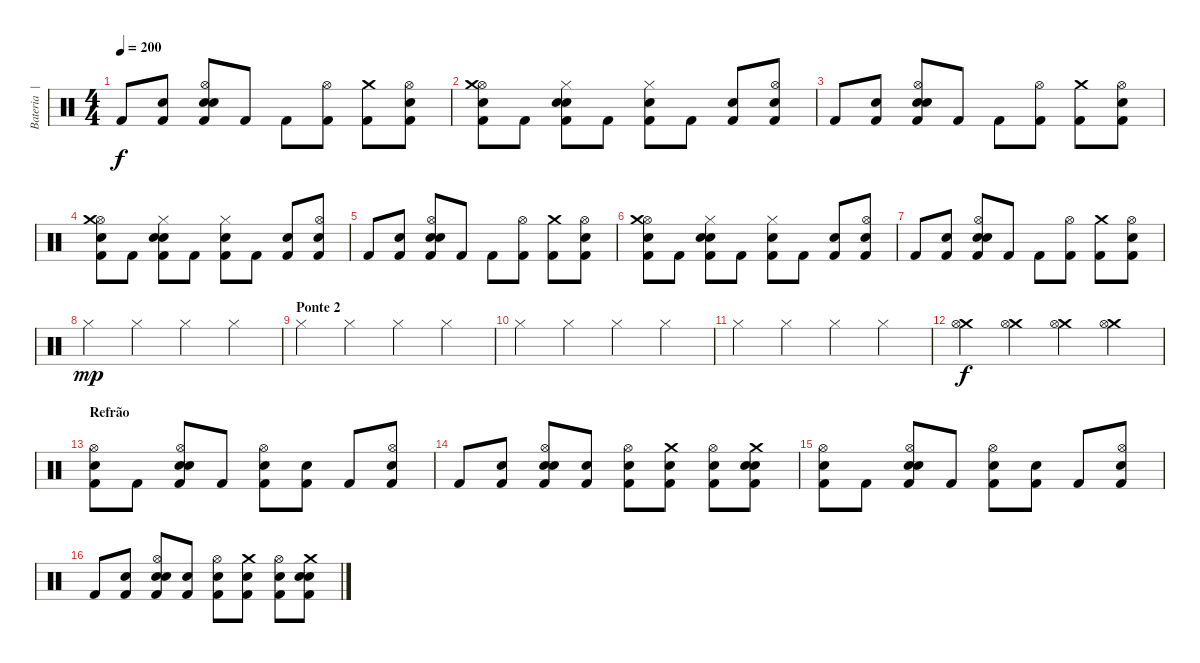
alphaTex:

\track ("Bateria  | Nô" "Bateria  |") {instrument percussion}
\staff {score}
\articulation defaults
\ts (4 4)
\tempo 200
\clef neutral
\ks c "Kick (hit) 2".8{dy f}
("Electric Snare (hit)" "Kick (hit) 2").8 ("Hi-Hat (open)" "Electric Snare (hit)" "Snare (hit) 2" "Kick (hit) 2").8 "Kick (hit) 2".8 "Kick (hit) 2".8 ("Hi-Hat (open)" "Kick (hit) 2").8 ("Crash medium (hit)" "Kick (hit) 2").8 ("Hi-Hat (open)" "Electric Snare (hit)" "Kick (hit) 2").8 |
("Hi-Hat (open)" "Crash medium (hit)" "Electric Snare (hit)" "Kick (hit) 2").8 "Kick (hit) 2".8 ("Hi-Hat (closed)" "Snare (hit) 2" "Electric Snare (hit)" "Kick (hit) 2").8 "Kick (hit) 2".8 ("Hi-Hat (closed)" "Electric Snare (hit)" "Kick (hit) 2").8 "Kick (hit) 2".8 ("Electric Snare (hit)" "Kick (hit) 2").8 ("Hi-Hat (open)" "Snare (hit) 2" "Kick (hit) 2").8 |
"Kick (hit) 2".8 ("Electric Snare (hit)" "Kick (hit) 2").8 ("Hi-Hat (open)" "Electric Snare (hit)" "Snare (hit) 2" "Kick (hit) 2").8 "Kick (hit) 2".8 "Kick (hit) 2".8 ("Hi-Hat (open)" "Kick (hit) 2").8 ("Crash medium (hit)" "Kick (hit) 2").8 ("Hi-Hat (open)" "Electric Snare (hit)" "Kick (hit) 2").8 |
("Hi-Hat (open)" "Crash medium (hit)" "Electric Snare (hit)" "Kick (hit) 2").8 "Kick (hit) 2".8 ("Hi-Hat (closed)" "Snare (hit) 2" "Electric Snare (hit)" "Kick (hit) 2").8 "Kick (hit) 2".8 ("Hi-Hat (closed)" "Electric Snare (hit)" "Kick (hit) 2").8 "Kick (hit) 2".8 ("Electric Snare (hit)" "Kick (hit) 2").8 ("Hi-Hat (open)" "Snare (hit) 2" "Kick (hit) 2").8 |
"Kick (hit) 2".8 ("Electric Snare (hit)" "Kick (hit) 2").8 ("Hi-Hat (open)" "Electric Snare (hit)" "Snare (hit) 2" "Kick (hit) 2").8 "Kick (hit) 2".8 "Kick (hit) 2".8 ("Hi-Hat (open)" "Kick (hit) 2").8 ("Crash medium (hit)" "Kick (hit) 2").8 ("Hi-Hat (open)" "Electric Snare (hit)" "Kick (hit) 2").8 |
("Hi-Hat (open)" "Crash medium (hit)" "Electric Snare (hit)" "Kick (hit) 2").8 "Kick (hit) 2".8 ("Hi-Hat (closed)" "Snare (hit) 2" "Electric Snare (hit)" "Kick (hit) 2").8 "Kick (hit) 2".8 ("Hi-Hat (closed)" "Electric Snare (hit)" "Kick (hit) 2").8 "Kick (hit) 2".8 ("Electric Snare (hit)" "Kick (hit) 2").8 ("Hi-Hat (open)" "Snare (hit) 2" "Kick (hit) 2").8 |
"Kick (hit) 2".8 ("Electric Snare (hit)" "Kick (hit) 2").8 ("Hi-Hat (open)" "Electric Snare (hit)" "Snare (hit) 2" "Kick (hit) 2").8 "Kick (hit) 2".8 "Kick (hit) 2".8 ("Hi-Hat (open)" "Kick (hit) 2").8 ("Crash medium (hit)" "Kick (hit) 2").8 ("Hi-Hat (open)" "Electric Snare (hit)" "Kick (hit) 2").8 |
"Hi-Hat (closed)".4{dy mp} "Hi-Hat (closed)".4 "Hi-Hat (closed)".4 "Hi-Hat (closed)".4 |
\section ("" "Ponte 2")
"Hi-Hat (closed)".4 "Hi-Hat (closed)".4 "Hi-Hat (closed)".4 "Hi-Hat (closed)".4 |
"Hi-Hat (closed)".4 "Hi-Hat (closed)".4 "Hi-Hat (closed)".4 "Hi-Hat (closed)".4 |
"Hi-Hat (closed)".4 "Hi-Hat (closed)".4 "Hi-Hat (closed)".4 "Hi-Hat (closed)".4 |
("Crash medium (hit)" "Hi-Hat (open)").4{dy f} ("Crash medium (hit)" "Hi-Hat (open)").4 ("Crash medium (hit)" "Hi-Hat (open)").4 ("Crash medium (hit)" "Hi-Hat (open)").4 |
\section ("" "Refrão")
("Hi-Hat (open)" "Electric Snare (hit)" "Kick (hit) 2").8 "Kick (hit) 2".8 ("Hi-Hat (open)" "Snare (hit) 2" "Electric Snare (hit)" "Kick (hit) 2").8 "Kick (hit) 2".8 ("Hi-Hat (open)" "Electric Snare (hit)" "Kick (hit) 2").8 ("Electric Snare (hit)" "Kick (hit) 2").8 "Kick (hit) 2".8 ("Hi-Hat (open)" "Snare (hit) 2" "Kick (hit) 2").8 |
"Kick (hit) 2".8 ("Electric Snare (hit)" "Kick (hit) 2").8 ("Hi-Hat (open)" "Electric Snare (hit)" "Snare (hit) 2" "Kick (hit) 2").8 ("Electric Snare (hit)" "Kick (hit) 2").8 ("Hi-Hat (open)" "Electric Snare (hit)" "Kick (hit) 2").8 ("Crash medium (hit)" "Electric Snare (hit)" "Kick (hit) 2").8 ("Hi-Hat (open)" "Electric Snare (hit)" "Kick (hit) 2").8 ("Crash medium (hit)" "Snare (hit) 2" "Electric Snare (hit)" "Kick (hit) 2").8 |
("Hi-Hat (open)" "Electric Snare (hit)" "Kick (hit) 2").8 "Kick (hit) 2".8 ("Hi-Hat (open)" "Snare (hit) 2" "Electric Snare (hit)" "Kick (hit) 2").8 "Kick (hit) 2".8 ("Hi-Hat (open)" "Electric Snare (hit)" "Kick (hit) 2").8 ("Electric Snare (hit)" "Kick (hit) 2").8 "Kick (hit) 2".8 ("Hi-Hat (open)" "Snare (hit) 2" "Kick (hit) 2").8 |
"Kick (hit) 2".8 ("Electric Snare (hit)" "Kick (hit) 2").8 ("Hi-Hat (open)" "Electric Snare (hit)" "Snare (hit) 2" "Kick (hit) 2").8 ("Electric Snare (hit)" "Kick (hit) 2").8 ("Hi-Hat (open)" "Electric Snare (hit)" "Kick (hit) 2").8 ("Crash medium (hit)" "Electric Snare (hit)" "Kick (hit) 2").8 ("Hi-Hat (open)" "Electric Snare (hit)" "Kick (hit) 2").8 ("Crash medium (hit)" "Snare (hit) 2" "Electric Snare (hit)" "Kick (hit) 2").8
